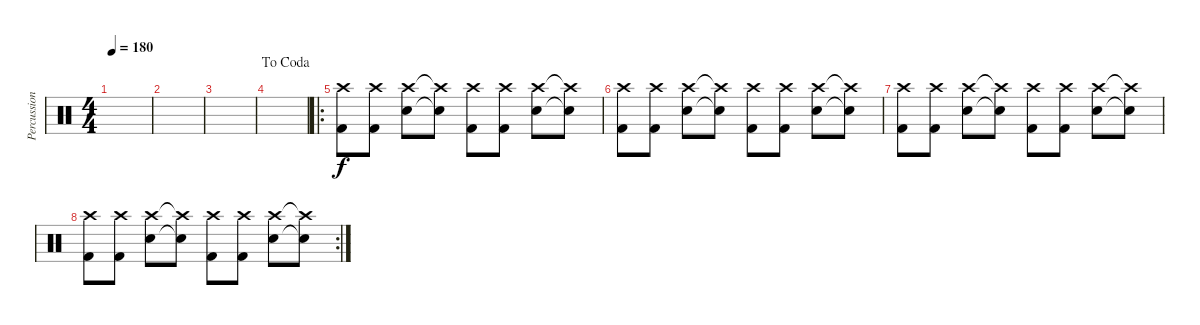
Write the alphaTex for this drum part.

\track ("Percussion" "Percussion") {instrument percussion}
\staff {score}
\articulation defaults
\ts (4 4)
\tempo 180
\clef neutral
\ks c
|
|
|
\jump dacoda
|
\ro
("Crash high (hit)" "Kick (hit) 2").8 ("Crash high (hit)" "Kick (hit) 2").8 ("Crash high (hit)" "Snare (hit) 2").8 ("Crash high (hit)"{t} "Snare (hit) 2"{t}).8 ("Crash high (hit)" "Kick (hit) 2").8 ("Crash high (hit)" "Kick (hit) 2").8 ("Crash high (hit)" "Snare (hit) 2").8 ("Crash high (hit)"{t} "Snare (hit) 2"{t}).8 |
("Crash high (hit)" "Kick (hit) 2").8 ("Crash high (hit)" "Kick (hit) 2").8 ("Crash high (hit)" "Snare (hit) 2").8 ("Crash high (hit)"{t} "Snare (hit) 2"{t}).8 ("Crash high (hit)" "Kick (hit) 2").8 ("Crash high (hit)" "Kick (hit) 2").8 ("Crash high (hit)" "Snare (hit) 2").8 ("Crash high (hit)"{t} "Snare (hit) 2"{t}).8 |
("Crash high (hit)" "Kick (hit) 2").8 ("Crash high (hit)" "Kick (hit) 2").8 ("Crash high (hit)" "Snare (hit) 2").8 ("Crash high (hit)"{t} "Snare (hit) 2"{t}).8 ("Crash high (hit)" "Kick (hit) 2").8 ("Crash high (hit)" "Kick (hit) 2").8 ("Crash high (hit)" "Snare (hit) 2").8 ("Crash high (hit)"{t} "Snare (hit) 2"{t}).8 |
\rc 2
("Crash high (hit)" "Kick (hit) 2").8 ("Crash high (hit)" "Kick (hit) 2").8 ("Crash high (hit)" "Snare (hit) 2").8 ("Crash high (hit)"{t} "Snare (hit) 2"{t}).8 ("Crash high (hit)" "Kick (hit) 2").8 ("Crash high (hit)" "Kick (hit) 2").8 ("Crash high (hit)" "Snare (hit) 2").8 ("Crash high (hit)"{t} "Snare (hit) 2"{t}).8
